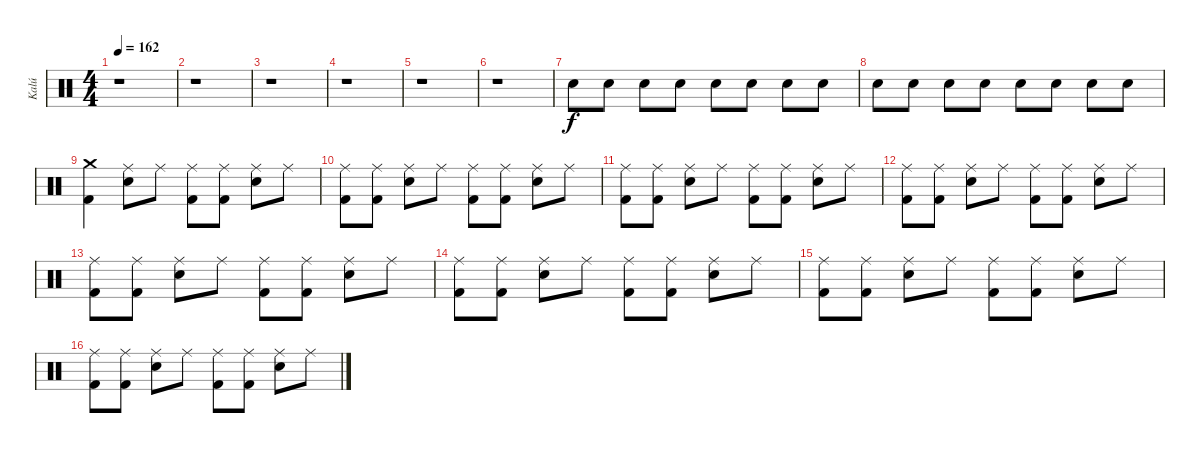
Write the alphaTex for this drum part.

\track ("Kalú" "Kalú") {instrument percussion}
\staff {score}
\articulation defaults
\ts (4 4)
\tempo 162
\clef neutral
\ks c
r.1{dy f} |
r.1 |
r.1 |
r.1 |
r.1 |
r.1 |
"Electric Snare (hit)".8{volume 4} "Electric Snare (hit)".8{volume 4} "Electric Snare (hit)".8{volume 4} "Electric Snare (hit)".8{volume 4} "Electric Snare (hit)".8{volume 5} "Electric Snare (hit)".8{volume 5} "Electric Snare (hit)".8{volume 5} "Electric Snare (hit)".8{volume 6} |
"Electric Snare (hit)".8{volume 6} "Electric Snare (hit)".8{volume 7} "Electric Snare (hit)".8{volume 8} "Electric Snare (hit)".8{volume 9} "Electric Snare (hit)".8{volume 10} "Electric Snare (hit)".8{volume 11} "Electric Snare (hit)".8{volume 12} "Electric Snare (hit)".8{volume 13} |
("Crash medium (hit)" "Kick (hit) 2").4 ("Ride (middle)" "Electric Snare (hit)").8 "Ride (middle)".8 ("Ride (middle)" "Kick (hit) 2").8 ("Ride (middle)" "Kick (hit) 2").8 ("Ride (middle)" "Electric Snare (hit)").8 "Ride (middle)".8 |
("Ride (middle)" "Kick (hit) 2").8 ("Ride (middle)" "Kick (hit) 2").8 ("Ride (middle)" "Electric Snare (hit)").8 "Ride (middle)".8 ("Ride (middle)" "Kick (hit) 2").8 ("Ride (middle)" "Kick (hit) 2").8 ("Ride (middle)" "Electric Snare (hit)").8 "Ride (middle)".8 |
("Ride (middle)" "Kick (hit) 2").8 ("Ride (middle)" "Kick (hit) 2").8 ("Ride (middle)" "Electric Snare (hit)").8 "Ride (middle)".8 ("Ride (middle)" "Kick (hit) 2").8 ("Ride (middle)" "Kick (hit) 2").8 ("Ride (middle)" "Electric Snare (hit)").8 "Ride (middle)".8 |
("Ride (middle)" "Kick (hit) 2").8 ("Ride (middle)" "Kick (hit) 2").8 ("Ride (middle)" "Electric Snare (hit)").8 "Ride (middle)".8 ("Ride (middle)" "Kick (hit) 2").8 ("Ride (middle)" "Kick (hit) 2").8 ("Ride (middle)" "Electric Snare (hit)").8 "Ride (middle)".8 |
("Ride (middle)" "Kick (hit) 2").8 ("Ride (middle)" "Kick (hit) 2").8 ("Ride (middle)" "Electric Snare (hit)").8 "Ride (middle)".8 ("Ride (middle)" "Kick (hit) 2").8 ("Ride (middle)" "Kick (hit) 2").8 ("Ride (middle)" "Electric Snare (hit)").8 "Ride (middle)".8 |
("Ride (middle)" "Kick (hit) 2").8 ("Ride (middle)" "Kick (hit) 2").8 ("Ride (middle)" "Electric Snare (hit)").8 "Ride (middle)".8 ("Ride (middle)" "Kick (hit) 2").8 ("Ride (middle)" "Kick (hit) 2").8 ("Ride (middle)" "Electric Snare (hit)").8 "Ride (middle)".8 |
("Ride (middle)" "Kick (hit) 2").8 ("Ride (middle)" "Kick (hit) 2").8 ("Ride (middle)" "Electric Snare (hit)").8 "Ride (middle)".8 ("Ride (middle)" "Kick (hit) 2").8 ("Ride (middle)" "Kick (hit) 2").8 ("Ride (middle)" "Electric Snare (hit)").8 "Ride (middle)".8 |
("Ride (middle)" "Kick (hit) 2").8 ("Ride (middle)" "Kick (hit) 2").8 ("Ride (middle)" "Electric Snare (hit)").8 "Ride (middle)".8 ("Ride (middle)" "Kick (hit) 2").8 ("Ride (middle)" "Kick (hit) 2").8 ("Ride (middle)" "Electric Snare (hit)").8 "Ride (middle)".8
